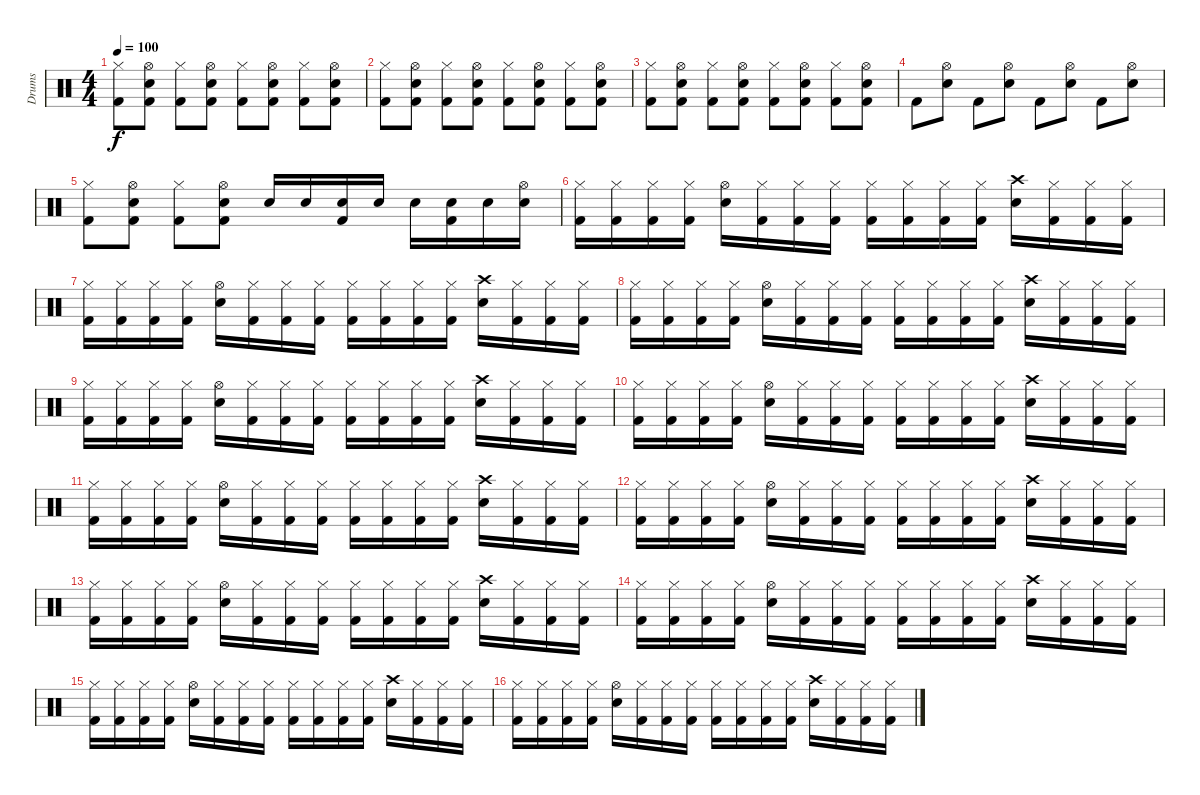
\track ("Drums" "Drums") {instrument percussion}
\staff {score}
\articulation defaults
\ts (4 4)
\tempo 100
\clef neutral
\ks c
("Kick (hit) 2" "Hi-Hat (closed)").8{dy f} ("Electric Snare (hit)" "Hi-Hat (open)" "Kick (hit) 2").8 ("Kick (hit) 2" "Hi-Hat (closed)").8 ("Electric Snare (hit)" "Hi-Hat (open)" "Kick (hit) 2").8 ("Kick (hit) 2" "Hi-Hat (closed)").8 ("Electric Snare (hit)" "Hi-Hat (open)" "Kick (hit) 2").8 ("Kick (hit) 2" "Hi-Hat (closed)").8 ("Electric Snare (hit)" "Hi-Hat (open)" "Kick (hit) 2").8 |
("Kick (hit) 2" "Hi-Hat (closed)").8 ("Electric Snare (hit)" "Hi-Hat (open)" "Kick (hit) 2").8 ("Kick (hit) 2" "Hi-Hat (closed)").8 ("Electric Snare (hit)" "Hi-Hat (open)" "Kick (hit) 2").8 ("Kick (hit) 2" "Hi-Hat (closed)").8 ("Electric Snare (hit)" "Hi-Hat (open)" "Kick (hit) 2").8 ("Kick (hit) 2" "Hi-Hat (closed)").8 ("Electric Snare (hit)" "Hi-Hat (open)" "Kick (hit) 2").8 |
("Kick (hit) 2" "Hi-Hat (closed)").8 ("Electric Snare (hit)" "Hi-Hat (open)" "Kick (hit) 2").8 ("Kick (hit) 2" "Hi-Hat (closed)").8 ("Electric Snare (hit)" "Hi-Hat (open)" "Kick (hit) 2").8 ("Kick (hit) 2" "Hi-Hat (closed)").8 ("Electric Snare (hit)" "Hi-Hat (open)" "Kick (hit) 2").8 ("Kick (hit) 2" "Hi-Hat (closed)").8 ("Electric Snare (hit)" "Hi-Hat (open)" "Kick (hit) 2").8 |
"Kick (hit) 2".8 ("Electric Snare (hit)" "Hi-Hat (open)").8 "Kick (hit) 2".8 ("Electric Snare (hit)" "Hi-Hat (open)").8 "Kick (hit) 2".8 ("Electric Snare (hit)" "Hi-Hat (open)").8 "Kick (hit) 2".8 ("Electric Snare (hit)" "Hi-Hat (open)").8 |
("Kick (hit) 2" "Hi-Hat (closed)").8 ("Electric Snare (hit)" "Hi-Hat (open)" "Kick (hit) 2").8 ("Kick (hit) 2" "Hi-Hat (closed)").8 ("Electric Snare (hit)" "Hi-Hat (open)" "Kick (hit) 2").8 "Electric Snare (hit)".16 "Electric Snare (hit)".16 ("Electric Snare (hit)" "Kick (hit) 2").16 "Electric Snare (hit)".16 "Electric Snare (hit)".16 ("Electric Snare (hit)" "Kick (hit) 2").16 "Electric Snare (hit)".16 ("Electric Snare (hit)" "Hi-Hat (open)").16 |
("Hi-Hat (closed)" "Kick (hit) 2").16 ("Hi-Hat (closed)" "Kick (hit) 2").16 ("Hi-Hat (closed)" "Kick (hit) 2").16 ("Hi-Hat (closed)" "Kick (hit) 2").16 ("Hi-Hat (open)" "Electric Snare (hit)").16 ("Hi-Hat (closed)" "Kick (hit) 2").16 ("Hi-Hat (closed)" "Kick (hit) 2").16 ("Hi-Hat (closed)" "Kick (hit) 2").16 ("Hi-Hat (closed)" "Kick (hit) 2").16 ("Hi-Hat (closed)" "Kick (hit) 2").16 ("Hi-Hat (closed)" "Kick (hit) 2").16 ("Hi-Hat (closed)" "Kick (hit) 2").16 ("Crash high (hit)" "Electric Snare (hit)").16 ("Hi-Hat (closed)" "Kick (hit) 2").16 ("Hi-Hat (closed)" "Kick (hit) 2").16 ("Hi-Hat (closed)" "Kick (hit) 2").16 |
("Hi-Hat (closed)" "Kick (hit) 2").16 ("Hi-Hat (closed)" "Kick (hit) 2").16 ("Hi-Hat (closed)" "Kick (hit) 2").16 ("Hi-Hat (closed)" "Kick (hit) 2").16 ("Hi-Hat (open)" "Electric Snare (hit)").16 ("Hi-Hat (closed)" "Kick (hit) 2").16 ("Hi-Hat (closed)" "Kick (hit) 2").16 ("Hi-Hat (closed)" "Kick (hit) 2").16 ("Hi-Hat (closed)" "Kick (hit) 2").16 ("Hi-Hat (closed)" "Kick (hit) 2").16 ("Hi-Hat (closed)" "Kick (hit) 2").16 ("Hi-Hat (closed)" "Kick (hit) 2").16 ("Crash high (hit)" "Electric Snare (hit)").16 ("Hi-Hat (closed)" "Kick (hit) 2").16 ("Hi-Hat (closed)" "Kick (hit) 2").16 ("Hi-Hat (closed)" "Kick (hit) 2").16 |
("Hi-Hat (closed)" "Kick (hit) 2").16 ("Hi-Hat (closed)" "Kick (hit) 2").16 ("Hi-Hat (closed)" "Kick (hit) 2").16 ("Hi-Hat (closed)" "Kick (hit) 2").16 ("Hi-Hat (open)" "Electric Snare (hit)").16 ("Hi-Hat (closed)" "Kick (hit) 2").16 ("Hi-Hat (closed)" "Kick (hit) 2").16 ("Hi-Hat (closed)" "Kick (hit) 2").16 ("Hi-Hat (closed)" "Kick (hit) 2").16 ("Hi-Hat (closed)" "Kick (hit) 2").16 ("Hi-Hat (closed)" "Kick (hit) 2").16 ("Hi-Hat (closed)" "Kick (hit) 2").16 ("Crash high (hit)" "Electric Snare (hit)").16 ("Hi-Hat (closed)" "Kick (hit) 2").16 ("Hi-Hat (closed)" "Kick (hit) 2").16 ("Hi-Hat (closed)" "Kick (hit) 2").16 |
("Hi-Hat (closed)" "Kick (hit) 2").16 ("Hi-Hat (closed)" "Kick (hit) 2").16 ("Hi-Hat (closed)" "Kick (hit) 2").16 ("Hi-Hat (closed)" "Kick (hit) 2").16 ("Hi-Hat (open)" "Electric Snare (hit)").16 ("Hi-Hat (closed)" "Kick (hit) 2").16 ("Hi-Hat (closed)" "Kick (hit) 2").16 ("Hi-Hat (closed)" "Kick (hit) 2").16 ("Hi-Hat (closed)" "Kick (hit) 2").16 ("Hi-Hat (closed)" "Kick (hit) 2").16 ("Hi-Hat (closed)" "Kick (hit) 2").16 ("Hi-Hat (closed)" "Kick (hit) 2").16 ("Crash high (hit)" "Electric Snare (hit)").16 ("Hi-Hat (closed)" "Kick (hit) 2").16 ("Hi-Hat (closed)" "Kick (hit) 2").16 ("Hi-Hat (closed)" "Kick (hit) 2").16 |
("Hi-Hat (closed)" "Kick (hit) 2").16 ("Hi-Hat (closed)" "Kick (hit) 2").16 ("Hi-Hat (closed)" "Kick (hit) 2").16 ("Hi-Hat (closed)" "Kick (hit) 2").16 ("Hi-Hat (open)" "Electric Snare (hit)").16 ("Hi-Hat (closed)" "Kick (hit) 2").16 ("Hi-Hat (closed)" "Kick (hit) 2").16 ("Hi-Hat (closed)" "Kick (hit) 2").16 ("Hi-Hat (closed)" "Kick (hit) 2").16 ("Hi-Hat (closed)" "Kick (hit) 2").16 ("Hi-Hat (closed)" "Kick (hit) 2").16 ("Hi-Hat (closed)" "Kick (hit) 2").16 ("Crash high (hit)" "Electric Snare (hit)").16 ("Hi-Hat (closed)" "Kick (hit) 2").16 ("Hi-Hat (closed)" "Kick (hit) 2").16 ("Hi-Hat (closed)" "Kick (hit) 2").16 |
("Hi-Hat (closed)" "Kick (hit) 2").16 ("Hi-Hat (closed)" "Kick (hit) 2").16 ("Hi-Hat (closed)" "Kick (hit) 2").16 ("Hi-Hat (closed)" "Kick (hit) 2").16 ("Hi-Hat (open)" "Electric Snare (hit)").16 ("Hi-Hat (closed)" "Kick (hit) 2").16 ("Hi-Hat (closed)" "Kick (hit) 2").16 ("Hi-Hat (closed)" "Kick (hit) 2").16 ("Hi-Hat (closed)" "Kick (hit) 2").16 ("Hi-Hat (closed)" "Kick (hit) 2").16 ("Hi-Hat (closed)" "Kick (hit) 2").16 ("Hi-Hat (closed)" "Kick (hit) 2").16 ("Crash high (hit)" "Electric Snare (hit)").16 ("Hi-Hat (closed)" "Kick (hit) 2").16 ("Hi-Hat (closed)" "Kick (hit) 2").16 ("Hi-Hat (closed)" "Kick (hit) 2").16 |
("Hi-Hat (closed)" "Kick (hit) 2").16 ("Hi-Hat (closed)" "Kick (hit) 2").16 ("Hi-Hat (closed)" "Kick (hit) 2").16 ("Hi-Hat (closed)" "Kick (hit) 2").16 ("Hi-Hat (open)" "Electric Snare (hit)").16 ("Hi-Hat (closed)" "Kick (hit) 2").16 ("Hi-Hat (closed)" "Kick (hit) 2").16 ("Hi-Hat (closed)" "Kick (hit) 2").16 ("Hi-Hat (closed)" "Kick (hit) 2").16 ("Hi-Hat (closed)" "Kick (hit) 2").16 ("Hi-Hat (closed)" "Kick (hit) 2").16 ("Hi-Hat (closed)" "Kick (hit) 2").16 ("Crash high (hit)" "Electric Snare (hit)").16 ("Hi-Hat (closed)" "Kick (hit) 2").16 ("Hi-Hat (closed)" "Kick (hit) 2").16 ("Hi-Hat (closed)" "Kick (hit) 2").16 |
("Hi-Hat (closed)" "Kick (hit) 2").16 ("Hi-Hat (closed)" "Kick (hit) 2").16 ("Hi-Hat (closed)" "Kick (hit) 2").16 ("Hi-Hat (closed)" "Kick (hit) 2").16 ("Hi-Hat (open)" "Electric Snare (hit)").16 ("Hi-Hat (closed)" "Kick (hit) 2").16 ("Hi-Hat (closed)" "Kick (hit) 2").16 ("Hi-Hat (closed)" "Kick (hit) 2").16 ("Hi-Hat (closed)" "Kick (hit) 2").16 ("Hi-Hat (closed)" "Kick (hit) 2").16 ("Hi-Hat (closed)" "Kick (hit) 2").16 ("Hi-Hat (closed)" "Kick (hit) 2").16 ("Crash high (hit)" "Electric Snare (hit)").16 ("Hi-Hat (closed)" "Kick (hit) 2").16 ("Hi-Hat (closed)" "Kick (hit) 2").16 ("Hi-Hat (closed)" "Kick (hit) 2").16 |
("Hi-Hat (closed)" "Kick (hit) 2").16 ("Hi-Hat (closed)" "Kick (hit) 2").16 ("Hi-Hat (closed)" "Kick (hit) 2").16 ("Hi-Hat (closed)" "Kick (hit) 2").16 ("Hi-Hat (open)" "Electric Snare (hit)").16 ("Hi-Hat (closed)" "Kick (hit) 2").16 ("Hi-Hat (closed)" "Kick (hit) 2").16 ("Hi-Hat (closed)" "Kick (hit) 2").16 ("Hi-Hat (closed)" "Kick (hit) 2").16 ("Hi-Hat (closed)" "Kick (hit) 2").16 ("Hi-Hat (closed)" "Kick (hit) 2").16 ("Hi-Hat (closed)" "Kick (hit) 2").16 ("Crash high (hit)" "Electric Snare (hit)").16 ("Hi-Hat (closed)" "Kick (hit) 2").16 ("Hi-Hat (closed)" "Kick (hit) 2").16 ("Hi-Hat (closed)" "Kick (hit) 2").16 |
("Hi-Hat (closed)" "Kick (hit) 2").16 ("Hi-Hat (closed)" "Kick (hit) 2").16 ("Hi-Hat (closed)" "Kick (hit) 2").16 ("Hi-Hat (closed)" "Kick (hit) 2").16 ("Hi-Hat (open)" "Electric Snare (hit)").16 ("Hi-Hat (closed)" "Kick (hit) 2").16 ("Hi-Hat (closed)" "Kick (hit) 2").16 ("Hi-Hat (closed)" "Kick (hit) 2").16 ("Hi-Hat (closed)" "Kick (hit) 2").16 ("Hi-Hat (closed)" "Kick (hit) 2").16 ("Hi-Hat (closed)" "Kick (hit) 2").16 ("Hi-Hat (closed)" "Kick (hit) 2").16 ("Crash high (hit)" "Electric Snare (hit)").16 ("Hi-Hat (closed)" "Kick (hit) 2").16 ("Hi-Hat (closed)" "Kick (hit) 2").16 ("Hi-Hat (closed)" "Kick (hit) 2").16 |
("Hi-Hat (closed)" "Kick (hit) 2").16 ("Hi-Hat (closed)" "Kick (hit) 2").16 ("Hi-Hat (closed)" "Kick (hit) 2").16 ("Hi-Hat (closed)" "Kick (hit) 2").16 ("Hi-Hat (open)" "Electric Snare (hit)").16 ("Hi-Hat (closed)" "Kick (hit) 2").16 ("Hi-Hat (closed)" "Kick (hit) 2").16 ("Hi-Hat (closed)" "Kick (hit) 2").16 ("Hi-Hat (closed)" "Kick (hit) 2").16 ("Hi-Hat (closed)" "Kick (hit) 2").16 ("Hi-Hat (closed)" "Kick (hit) 2").16 ("Hi-Hat (closed)" "Kick (hit) 2").16 ("Crash high (hit)" "Electric Snare (hit)").16 ("Hi-Hat (closed)" "Kick (hit) 2").16 ("Hi-Hat (closed)" "Kick (hit) 2").16 ("Hi-Hat (closed)" "Kick (hit) 2").16
